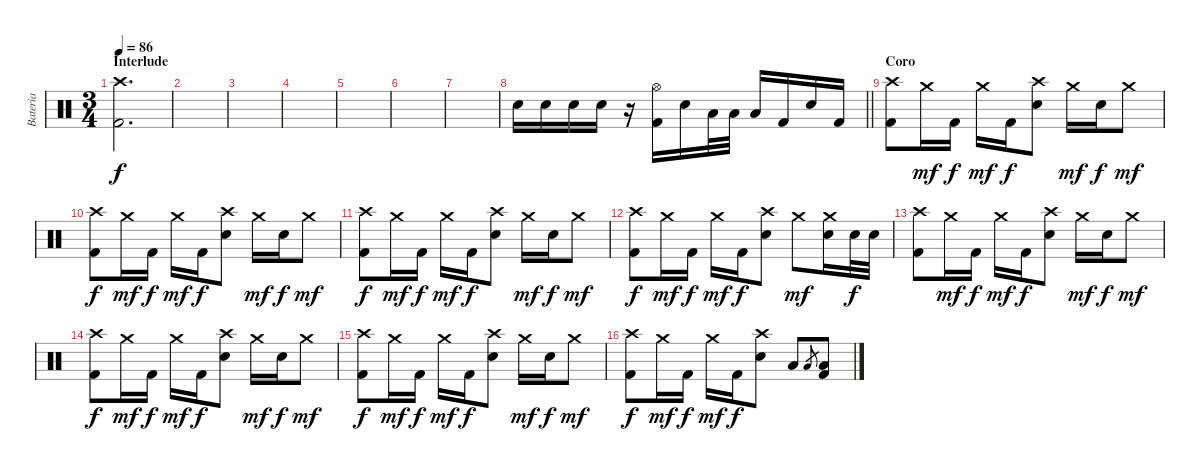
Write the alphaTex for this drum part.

\track ("Bateria" "Bateria") {instrument percussion}
\staff {score}
\articulation defaults
\ts (3 4)
\section ("" "Interlude")
\tempo 86
\clef neutral
\ks c
("Crash high (hit)" "Kick (hit) 2").2{d dy f} |
|
|
|
|
|
|
\barLineRight lightlight "Snare (hit) 2".16 "Snare (hit) 2".16 "Snare (hit) 2".16 "Snare (hit) 2".16
r.16 ("Hi-Hat (open)" "Kick (hit) 2").16 "Snare (hit) 2".16 "Low Floor Tom (hit)".32 "Low Floor Tom (hit)".32 "Low Floor Tom (hit)".16 "Kick (hit) 2".16 "Snare (hit) 2".16 "Kick (hit) 2".16 |
\section ("" "Coro")
("Crash high (hit)" "Kick (hit) 2").8 "Crash medium (hit)".16{dy mf} "Kick (hit) 2".16{dy f} "Crash medium (hit)".16{dy mf} "Kick (hit) 2".16{dy f} ("Crash high (hit)" "Snare (hit) 2").8 "Crash medium (hit)".16{dy mf} "Snare (hit) 2".16{dy f} "Crash medium (hit)".8{dy mf} |
("Crash high (hit)" "Kick (hit) 2").8{dy f} "Crash medium (hit)".16{dy mf} "Kick (hit) 2".16{dy f} "Crash medium (hit)".16{dy mf} "Kick (hit) 2".16{dy f} ("Crash high (hit)" "Snare (hit) 2").8 "Crash medium (hit)".16{dy mf} "Snare (hit) 2".16{dy f} "Crash medium (hit)".8{dy mf} |
("Crash high (hit)" "Kick (hit) 2").8{dy f} "Crash medium (hit)".16{dy mf} "Kick (hit) 2".16{dy f} "Crash medium (hit)".16{dy mf} "Kick (hit) 2".16{dy f} ("Crash high (hit)" "Snare (hit) 2").8 "Crash medium (hit)".16{dy mf} "Snare (hit) 2".16{dy f} "Crash medium (hit)".8{dy mf} |
("Crash high (hit)" "Kick (hit) 2").8{dy f} "Crash medium (hit)".16{dy mf} "Kick (hit) 2".16{dy f} "Crash medium (hit)".16{dy mf} "Kick (hit) 2".16{dy f} ("Crash high (hit)" "Snare (hit) 2").8 "Crash medium (hit)".8{dy mf} ("Crash medium (hit)" "Snare (hit) 2").16 "Snare (hit) 2".32{dy f} "Snare (hit) 2".32 |
("Crash high (hit)" "Kick (hit) 2").8 "Crash medium (hit)".16{dy mf} "Kick (hit) 2".16{dy f} "Crash medium (hit)".16{dy mf} "Kick (hit) 2".16{dy f} ("Crash high (hit)" "Snare (hit) 2").8 "Crash medium (hit)".16{dy mf} "Snare (hit) 2".16{dy f} "Crash medium (hit)".8{dy mf} |
("Crash high (hit)" "Kick (hit) 2").8{dy f} "Crash medium (hit)".16{dy mf} "Kick (hit) 2".16{dy f} "Crash medium (hit)".16{dy mf} "Kick (hit) 2".16{dy f} ("Crash high (hit)" "Snare (hit) 2").8 "Crash medium (hit)".16{dy mf} "Snare (hit) 2".16{dy f} "Crash medium (hit)".8{dy mf} |
("Crash high (hit)" "Kick (hit) 2").8{dy f} "Crash medium (hit)".16{dy mf} "Kick (hit) 2".16{dy f} "Crash medium (hit)".16{dy mf} "Kick (hit) 2".16{dy f} ("Crash high (hit)" "Snare (hit) 2").8 "Crash medium (hit)".16{dy mf} "Snare (hit) 2".16{dy f} "Crash medium (hit)".8{dy mf} |
("Crash high (hit)" "Kick (hit) 2").8{dy f} "Crash medium (hit)".16{dy mf} "Kick (hit) 2".16{dy f} "Crash medium (hit)".16{dy mf} "Kick (hit) 2".16{dy f} ("Crash high (hit)" "Snare (hit) 2").8 "Low Tom (hit)".8 "Low Floor Tom (hit)".8{gr} ("Low Floor Tom (hit)" "Kick (hit) 2").8
